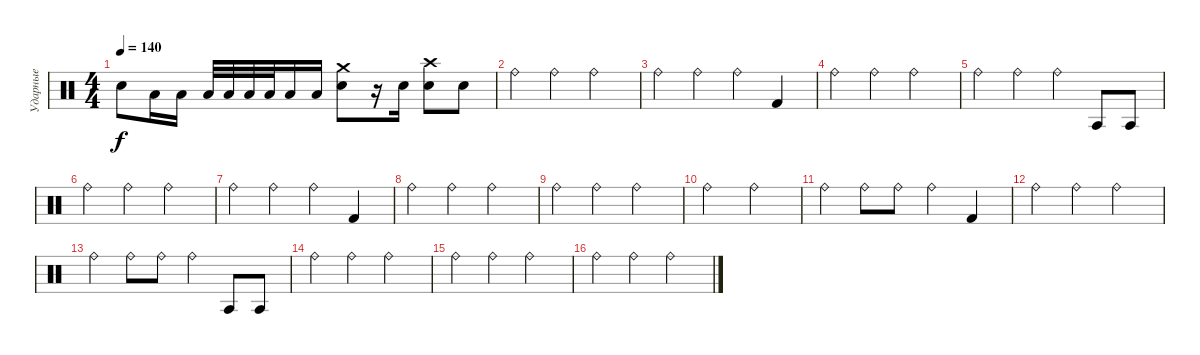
\track ("Ударные" "Ударные") {instrument percussion}
\staff {score}
\articulation defaults
\ts (4 4)
\tempo 140
\clef neutral
\ks c "Electric Snare (hit)".8{dy f} "Low Tom (hit)".16 "Low Tom (hit)".16 "Low Tom (hit)".32 "Low Tom (hit)".32 "Low Tom (hit)".32 "Low Tom (hit)".32 "Low Tom (hit)".16 "Low Tom (hit)".16
("Crash medium (hit)" "Electric Snare (hit)").8 r.16 "Electric Snare (hit)".16 ("Crash high (hit)" "Electric Snare (hit)").8 "Electric Snare (hit)".8 |
"Ride (bell)".4 "Ride (bell)".4 "Ride (bell)".2 |
"Ride (bell)".4 "Ride (bell)".4 "Ride (bell)".4 "Kick (hit) 2".4 |
"Ride (bell)".4 "Ride (bell)".4 "Ride (bell)".2 |
"Ride (bell)".4 "Ride (bell)".4 "Ride (bell)".4 "Agogo tow (hit)".8 "Agogo tow (hit)".8 |
"Ride (bell)".4 "Ride (bell)".4 "Ride (bell)".2 |
"Ride (bell)".4 "Ride (bell)".4 "Ride (bell)".4 "Kick (hit) 2".4 |
"Ride (bell)".4 "Ride (bell)".4 "Ride (bell)".2 |
"Ride (bell)".4 "Ride (bell)".4 "Ride (bell)".2 |
"Ride (bell)".2 "Ride (bell)".2 |
"Ride (bell)".4 "Ride (bell)".8 "Ride (bell)".8 "Ride (bell)".4 "Kick (hit) 2".4 |
"Ride (bell)".4 "Ride (bell)".4 "Ride (bell)".2 |
"Ride (bell)".4 "Ride (bell)".8 "Ride (bell)".8 "Ride (bell)".4 "Agogo tow (hit)".8 "Agogo tow (hit)".8 |
"Ride (bell)".4 "Ride (bell)".4 "Ride (bell)".2 |
"Ride (bell)".4 "Ride (bell)".4 "Ride (bell)".2 |
"Ride (bell)".4 "Ride (bell)".4 "Ride (bell)".2
